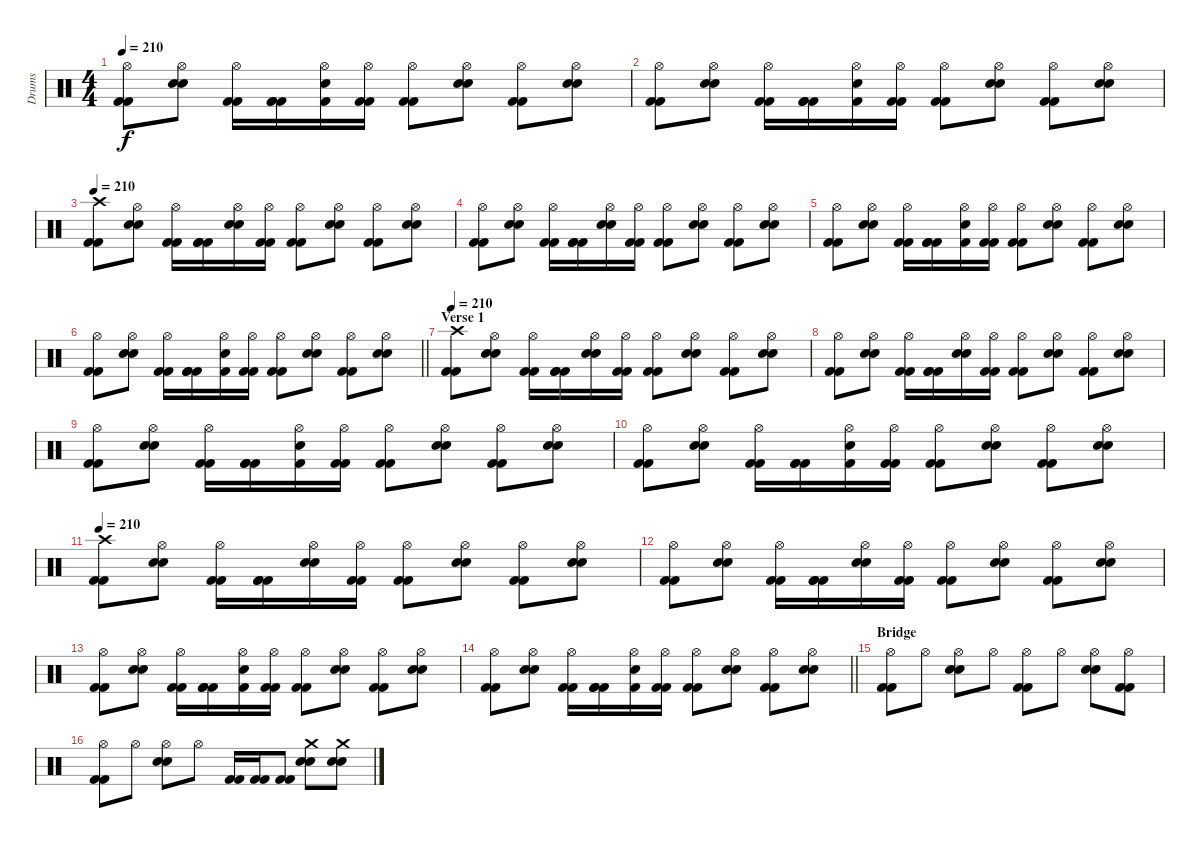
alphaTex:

\track ("Drums" "Drums") {instrument percussion}
\staff {score}
\articulation defaults
\ts (4 4)
\tempo 210
\clef neutral
\ks c
("Hi-Hat (open)" "Kick (hit) 2" "Kick (hit) 2").8{dy f} ("Hi-Hat (open)" "Snare (hit) 2" "Snare (hit) 2").8 ("Hi-Hat (open)" "Kick (hit) 2" "Kick (hit) 2").16 ("Kick (hit) 2" "Kick (hit) 2" "Kick (hit) 2").16 ("Hi-Hat (open)" "Snare (hit) 2" "Kick (hit) 2").16 ("Hi-Hat (open)" "Kick (hit) 2" "Kick (hit) 2").16 ("Hi-Hat (open)" "Kick (hit) 2" "Kick (hit) 2").8 ("Hi-Hat (open)" "Snare (hit) 2" "Snare (hit) 2").8 ("Hi-Hat (open)" "Kick (hit) 2" "Kick (hit) 2").8 ("Hi-Hat (open)" "Snare (hit) 2" "Snare (hit) 2").8 |
("Hi-Hat (open)" "Kick (hit) 2" "Kick (hit) 2").8 ("Hi-Hat (open)" "Snare (hit) 2" "Snare (hit) 2").8 ("Hi-Hat (open)" "Kick (hit) 2" "Kick (hit) 2").16 ("Kick (hit) 2" "Kick (hit) 2" "Kick (hit) 2").16 ("Hi-Hat (open)" "Snare (hit) 2" "Kick (hit) 2").16 ("Hi-Hat (open)" "Kick (hit) 2" "Kick (hit) 2").16 ("Hi-Hat (open)" "Kick (hit) 2" "Kick (hit) 2").8 ("Hi-Hat (open)" "Snare (hit) 2" "Snare (hit) 2").8 ("Hi-Hat (open)" "Kick (hit) 2" "Kick (hit) 2").8 ("Hi-Hat (open)" "Snare (hit) 2" "Snare (hit) 2").8 |
\tempo 210
("Crash high (hit)" "Kick (hit) 2" "Kick (hit) 2").8 ("Hi-Hat (open)" "Snare (hit) 2" "Snare (hit) 2").8 ("Hi-Hat (open)" "Kick (hit) 2" "Kick (hit) 2").16 ("Kick (hit) 2" "Kick (hit) 2" "Kick (hit) 2").16 ("Hi-Hat (open)" "Snare (hit) 2" "Snare (hit) 2").16 ("Hi-Hat (open)" "Kick (hit) 2" "Kick (hit) 2").16 ("Hi-Hat (open)" "Kick (hit) 2" "Kick (hit) 2").8 ("Hi-Hat (open)" "Snare (hit) 2" "Snare (hit) 2").8 ("Hi-Hat (open)" "Kick (hit) 2" "Kick (hit) 2").8 ("Hi-Hat (open)" "Snare (hit) 2" "Snare (hit) 2").8 |
("Hi-Hat (open)" "Kick (hit) 2" "Kick (hit) 2").8 ("Hi-Hat (open)" "Snare (hit) 2" "Snare (hit) 2").8 ("Hi-Hat (open)" "Kick (hit) 2" "Kick (hit) 2").16 ("Kick (hit) 2" "Kick (hit) 2" "Kick (hit) 2").16 ("Hi-Hat (open)" "Snare (hit) 2" "Snare (hit) 2").16 ("Hi-Hat (open)" "Kick (hit) 2" "Kick (hit) 2").16 ("Hi-Hat (open)" "Kick (hit) 2" "Kick (hit) 2").8 ("Hi-Hat (open)" "Snare (hit) 2" "Snare (hit) 2").8 ("Hi-Hat (open)" "Kick (hit) 2" "Kick (hit) 2").8 ("Hi-Hat (open)" "Snare (hit) 2" "Snare (hit) 2").8 |
("Hi-Hat (open)" "Kick (hit) 2" "Kick (hit) 2").8 ("Hi-Hat (open)" "Snare (hit) 2" "Snare (hit) 2").8 ("Hi-Hat (open)" "Kick (hit) 2" "Kick (hit) 2").16 ("Kick (hit) 2" "Kick (hit) 2" "Kick (hit) 2").16 ("Hi-Hat (open)" "Snare (hit) 2" "Kick (hit) 2").16 ("Hi-Hat (open)" "Kick (hit) 2" "Kick (hit) 2").16 ("Hi-Hat (open)" "Kick (hit) 2" "Kick (hit) 2").8 ("Hi-Hat (open)" "Snare (hit) 2" "Snare (hit) 2").8 ("Hi-Hat (open)" "Kick (hit) 2" "Kick (hit) 2").8 ("Hi-Hat (open)" "Snare (hit) 2" "Snare (hit) 2").8 |
\barLineRight lightlight
("Hi-Hat (open)" "Kick (hit) 2" "Kick (hit) 2").8 ("Hi-Hat (open)" "Snare (hit) 2" "Snare (hit) 2").8 ("Hi-Hat (open)" "Kick (hit) 2" "Kick (hit) 2").16 ("Kick (hit) 2" "Kick (hit) 2" "Kick (hit) 2").16 ("Hi-Hat (open)" "Snare (hit) 2" "Kick (hit) 2").16 ("Hi-Hat (open)" "Kick (hit) 2" "Kick (hit) 2").16 ("Hi-Hat (open)" "Kick (hit) 2" "Kick (hit) 2").8 ("Hi-Hat (open)" "Snare (hit) 2" "Snare (hit) 2").8 ("Hi-Hat (open)" "Kick (hit) 2" "Kick (hit) 2").8 ("Hi-Hat (open)" "Snare (hit) 2" "Snare (hit) 2").8 |
\section ("" "Verse 1")
\tempo 210
("Crash high (hit)" "Kick (hit) 2" "Kick (hit) 2").8 ("Hi-Hat (open)" "Snare (hit) 2" "Snare (hit) 2").8 ("Hi-Hat (open)" "Kick (hit) 2" "Kick (hit) 2").16 ("Kick (hit) 2" "Kick (hit) 2" "Kick (hit) 2").16 ("Hi-Hat (open)" "Snare (hit) 2" "Snare (hit) 2").16 ("Hi-Hat (open)" "Kick (hit) 2" "Kick (hit) 2").16 ("Hi-Hat (open)" "Kick (hit) 2" "Kick (hit) 2").8 ("Hi-Hat (open)" "Snare (hit) 2" "Snare (hit) 2").8 ("Hi-Hat (open)" "Kick (hit) 2" "Kick (hit) 2").8 ("Hi-Hat (open)" "Snare (hit) 2" "Snare (hit) 2").8 |
("Hi-Hat (open)" "Kick (hit) 2" "Kick (hit) 2").8 ("Hi-Hat (open)" "Snare (hit) 2" "Snare (hit) 2").8 ("Hi-Hat (open)" "Kick (hit) 2" "Kick (hit) 2").16 ("Kick (hit) 2" "Kick (hit) 2" "Kick (hit) 2").16 ("Hi-Hat (open)" "Snare (hit) 2" "Snare (hit) 2").16 ("Hi-Hat (open)" "Kick (hit) 2" "Kick (hit) 2").16 ("Hi-Hat (open)" "Kick (hit) 2" "Kick (hit) 2").8 ("Hi-Hat (open)" "Snare (hit) 2" "Snare (hit) 2").8 ("Hi-Hat (open)" "Kick (hit) 2" "Kick (hit) 2").8 ("Hi-Hat (open)" "Snare (hit) 2" "Snare (hit) 2").8 |
("Hi-Hat (open)" "Kick (hit) 2" "Kick (hit) 2").8 ("Hi-Hat (open)" "Snare (hit) 2" "Snare (hit) 2").8 ("Hi-Hat (open)" "Kick (hit) 2" "Kick (hit) 2").16 ("Kick (hit) 2" "Kick (hit) 2" "Kick (hit) 2").16 ("Hi-Hat (open)" "Snare (hit) 2" "Kick (hit) 2").16 ("Hi-Hat (open)" "Kick (hit) 2" "Kick (hit) 2").16 ("Hi-Hat (open)" "Kick (hit) 2" "Kick (hit) 2").8 ("Hi-Hat (open)" "Snare (hit) 2" "Snare (hit) 2").8 ("Hi-Hat (open)" "Kick (hit) 2" "Kick (hit) 2").8 ("Hi-Hat (open)" "Snare (hit) 2" "Snare (hit) 2").8 |
("Hi-Hat (open)" "Kick (hit) 2" "Kick (hit) 2").8 ("Hi-Hat (open)" "Snare (hit) 2" "Snare (hit) 2").8 ("Hi-Hat (open)" "Kick (hit) 2" "Kick (hit) 2").16 ("Kick (hit) 2" "Kick (hit) 2" "Kick (hit) 2").16 ("Hi-Hat (open)" "Snare (hit) 2" "Kick (hit) 2").16 ("Hi-Hat (open)" "Kick (hit) 2" "Kick (hit) 2").16 ("Hi-Hat (open)" "Kick (hit) 2" "Kick (hit) 2").8 ("Hi-Hat (open)" "Snare (hit) 2" "Snare (hit) 2").8 ("Hi-Hat (open)" "Kick (hit) 2" "Kick (hit) 2").8 ("Hi-Hat (open)" "Snare (hit) 2" "Snare (hit) 2").8 |
\tempo 210
("Crash high (hit)" "Kick (hit) 2" "Kick (hit) 2").8 ("Hi-Hat (open)" "Snare (hit) 2" "Snare (hit) 2").8 ("Hi-Hat (open)" "Kick (hit) 2" "Kick (hit) 2").16 ("Kick (hit) 2" "Kick (hit) 2" "Kick (hit) 2").16 ("Hi-Hat (open)" "Snare (hit) 2" "Snare (hit) 2").16 ("Hi-Hat (open)" "Kick (hit) 2" "Kick (hit) 2").16 ("Hi-Hat (open)" "Kick (hit) 2" "Kick (hit) 2").8 ("Hi-Hat (open)" "Snare (hit) 2" "Snare (hit) 2").8 ("Hi-Hat (open)" "Kick (hit) 2" "Kick (hit) 2").8 ("Hi-Hat (open)" "Snare (hit) 2" "Snare (hit) 2").8 |
("Hi-Hat (open)" "Kick (hit) 2" "Kick (hit) 2").8 ("Hi-Hat (open)" "Snare (hit) 2" "Snare (hit) 2").8 ("Hi-Hat (open)" "Kick (hit) 2" "Kick (hit) 2").16 ("Kick (hit) 2" "Kick (hit) 2" "Kick (hit) 2").16 ("Hi-Hat (open)" "Snare (hit) 2" "Snare (hit) 2").16 ("Hi-Hat (open)" "Kick (hit) 2" "Kick (hit) 2").16 ("Hi-Hat (open)" "Kick (hit) 2" "Kick (hit) 2").8 ("Hi-Hat (open)" "Snare (hit) 2" "Snare (hit) 2").8 ("Hi-Hat (open)" "Kick (hit) 2" "Kick (hit) 2").8 ("Hi-Hat (open)" "Snare (hit) 2" "Snare (hit) 2").8 |
("Hi-Hat (open)" "Kick (hit) 2" "Kick (hit) 2").8 ("Hi-Hat (open)" "Snare (hit) 2" "Snare (hit) 2").8 ("Hi-Hat (open)" "Kick (hit) 2" "Kick (hit) 2").16 ("Kick (hit) 2" "Kick (hit) 2" "Kick (hit) 2").16 ("Hi-Hat (open)" "Snare (hit) 2" "Kick (hit) 2").16 ("Hi-Hat (open)" "Kick (hit) 2" "Kick (hit) 2").16 ("Hi-Hat (open)" "Kick (hit) 2" "Kick (hit) 2").8 ("Hi-Hat (open)" "Snare (hit) 2" "Snare (hit) 2").8 ("Hi-Hat (open)" "Kick (hit) 2" "Kick (hit) 2").8 ("Hi-Hat (open)" "Snare (hit) 2" "Snare (hit) 2").8 |
\barLineRight lightlight
("Hi-Hat (open)" "Kick (hit) 2" "Kick (hit) 2").8 ("Hi-Hat (open)" "Snare (hit) 2" "Snare (hit) 2").8 ("Hi-Hat (open)" "Kick (hit) 2" "Kick (hit) 2").16 ("Kick (hit) 2" "Kick (hit) 2" "Kick (hit) 2").16 ("Hi-Hat (open)" "Snare (hit) 2" "Kick (hit) 2").16 ("Hi-Hat (open)" "Kick (hit) 2" "Kick (hit) 2").16 ("Hi-Hat (open)" "Kick (hit) 2" "Kick (hit) 2").8 ("Hi-Hat (open)" "Snare (hit) 2" "Snare (hit) 2").8 ("Hi-Hat (open)" "Kick (hit) 2" "Kick (hit) 2").8 ("Hi-Hat (open)" "Snare (hit) 2" "Snare (hit) 2").8 |
\section ("" "Bridge")
("Hi-Hat (open)" "Kick (hit) 2" "Kick (hit) 2").8 "Hi-Hat (open)".8 ("Hi-Hat (open)" "Snare (hit) 2" "Snare (hit) 2").8 "Hi-Hat (open)".8 ("Hi-Hat (open)" "Kick (hit) 2" "Kick (hit) 2").8 "Hi-Hat (open)".8 ("Hi-Hat (open)" "Snare (hit) 2" "Snare (hit) 2").8 ("Hi-Hat (open)" "Kick (hit) 2" "Kick (hit) 2").8 |
("Hi-Hat (open)" "Kick (hit) 2" "Kick (hit) 2").8 "Hi-Hat (open)".8 ("Hi-Hat (open)" "Snare (hit) 2" "Snare (hit) 2").8 "Hi-Hat (open)".8 ("Kick (hit) 2" "Kick (hit) 2").16 ("Kick (hit) 2" "Kick (hit) 2").16 ("Kick (hit) 2" "Kick (hit) 2").8 ("Crash medium (hit)" "Snare (hit) 2" "Snare (hit) 2").8 ("Crash medium (hit)" "Snare (hit) 2" "Snare (hit) 2").8
